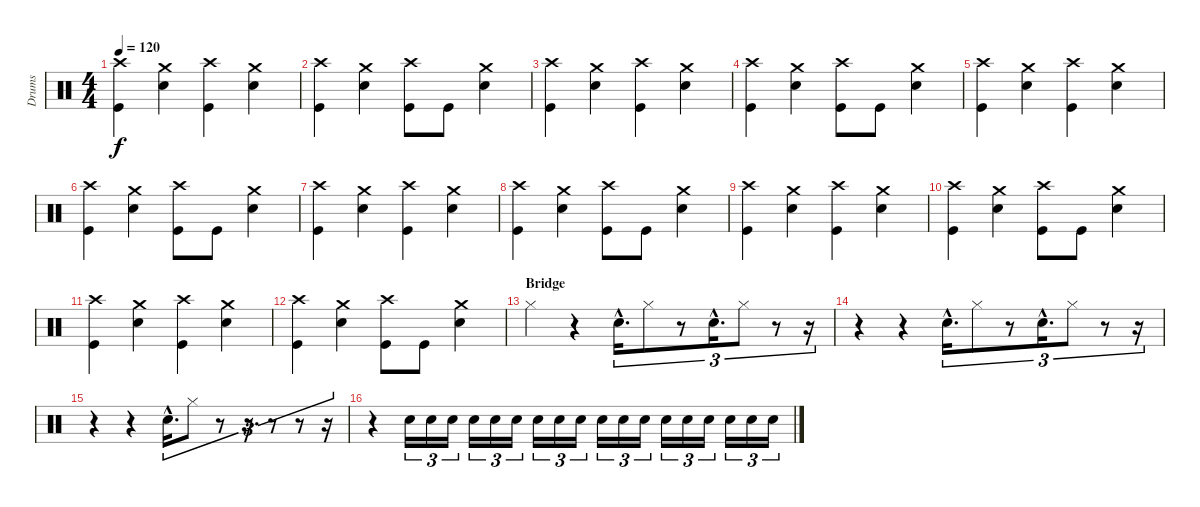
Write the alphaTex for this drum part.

\track ("Drums" "Drums") {instrument percussion}
\staff {score}
\articulation defaults
\ts (4 4)
\tempo 120
\clef neutral
\ks c
("Crash high (hit)" "Kick (hit)").4{dy f} ("Crash medium (hit)" "Electric Snare (hit)").4 ("Crash high (hit)" "Kick (hit)").4 ("Crash medium (hit)" "Electric Snare (hit)").4 |
("Crash high (hit)" "Kick (hit)").4 ("Crash medium (hit)" "Electric Snare (hit)").4 ("Crash high (hit)" "Kick (hit)").8 "Kick (hit)".8 ("Crash medium (hit)" "Electric Snare (hit)").4 |
("Crash high (hit)" "Kick (hit)").4 ("Crash medium (hit)" "Electric Snare (hit)").4 ("Crash high (hit)" "Kick (hit)").4 ("Crash medium (hit)" "Electric Snare (hit)").4 |
("Crash high (hit)" "Kick (hit)").4 ("Crash medium (hit)" "Electric Snare (hit)").4 ("Crash high (hit)" "Kick (hit)").8 "Kick (hit)".8 ("Crash medium (hit)" "Electric Snare (hit)").4 |
("Crash high (hit)" "Kick (hit)").4 ("Crash medium (hit)" "Electric Snare (hit)").4 ("Crash high (hit)" "Kick (hit)").4 ("Crash medium (hit)" "Electric Snare (hit)").4 |
("Crash high (hit)" "Kick (hit)").4 ("Crash medium (hit)" "Electric Snare (hit)").4 ("Crash high (hit)" "Kick (hit)").8 "Kick (hit)".8 ("Crash medium (hit)" "Electric Snare (hit)").4 |
("Crash high (hit)" "Kick (hit)").4 ("Crash medium (hit)" "Electric Snare (hit)").4 ("Crash high (hit)" "Kick (hit)").4 ("Crash medium (hit)" "Electric Snare (hit)").4 |
("Crash high (hit)" "Kick (hit)").4 ("Crash medium (hit)" "Electric Snare (hit)").4 ("Crash high (hit)" "Kick (hit)").8 "Kick (hit)".8 ("Crash medium (hit)" "Electric Snare (hit)").4 |
("Crash high (hit)" "Kick (hit)").4 ("Crash medium (hit)" "Electric Snare (hit)").4 ("Crash high (hit)" "Kick (hit)").4 ("Crash medium (hit)" "Electric Snare (hit)").4 |
("Crash high (hit)" "Kick (hit)").4 ("Crash medium (hit)" "Electric Snare (hit)").4 ("Crash high (hit)" "Kick (hit)").8 "Kick (hit)".8 ("Crash medium (hit)" "Electric Snare (hit)").4 |
("Crash high (hit)" "Kick (hit)").4 ("Crash medium (hit)" "Electric Snare (hit)").4 ("Crash high (hit)" "Kick (hit)").4 ("Crash medium (hit)" "Electric Snare (hit)").4 |
("Crash high (hit)" "Kick (hit)").4 ("Crash medium (hit)" "Electric Snare (hit)").4 ("Crash high (hit)" "Kick (hit)").8 "Kick (hit)".8 ("Crash medium (hit)" "Electric Snare (hit)").4 |
\section ("" "Bridge")
"Hi-Hat (closed)".4 r.4 "Electric Snare (hit)"{hac}.16{d tu (3 2)} "Hi-Hat (closed)".8{tu (3 2)} r.8{tu (3 2)} "Electric Snare (hit)"{hac}.16{d tu (3 2)} "Hi-Hat (closed)".8{tu (3 2)} r.8{tu (3 2)} r.16{tu (3 2)} |
r.4 r.4 "Electric Snare (hit)"{hac}.16{d tu (3 2)} "Hi-Hat (closed)".8{tu (3 2)} r.8{tu (3 2)} "Electric Snare (hit)"{hac}.16{d tu (3 2)} "Hi-Hat (closed)".8{tu (3 2)} r.8{tu (3 2)} r.16{tu (3 2)} |
r.4 r.4 "Electric Snare (hit)"{hac}.16{d tu (3 2)} "Hi-Hat (closed)".8{tu (3 2)} r.8{tu (3 2)} r.16{d tu (3 2)} r.8{tu (3 2)} r.8{tu (3 2)} r.16{tu (3 2)} |
r.4 "Electric Snare (hit)".16{tu (3 2)} "Electric Snare (hit)".16{tu (3 2)} "Electric Snare (hit)".16{tu (3 2)} "Electric Snare (hit)".16{tu (3 2)} "Electric Snare (hit)".16{tu (3 2)} "Electric Snare (hit)".16{tu (3 2)} "Electric Snare (hit)".16{tu (3 2)} "Electric Snare (hit)".16{tu (3 2)} "Electric Snare (hit)".16{tu (3 2)} "Electric Snare (hit)".16{tu (3 2)} "Electric Snare (hit)".16{tu (3 2)} "Electric Snare (hit)".16{tu (3 2)} "Snare (hit)".16{tu (3 2)} "Electric Snare (hit)".16{tu (3 2)} "Electric Snare (hit)".16{tu (3 2)} "Electric Snare (hit)".16{tu (3 2)} "Electric Snare (hit)".16{tu (3 2)} "Electric Snare (hit)".16{tu (3 2)}
